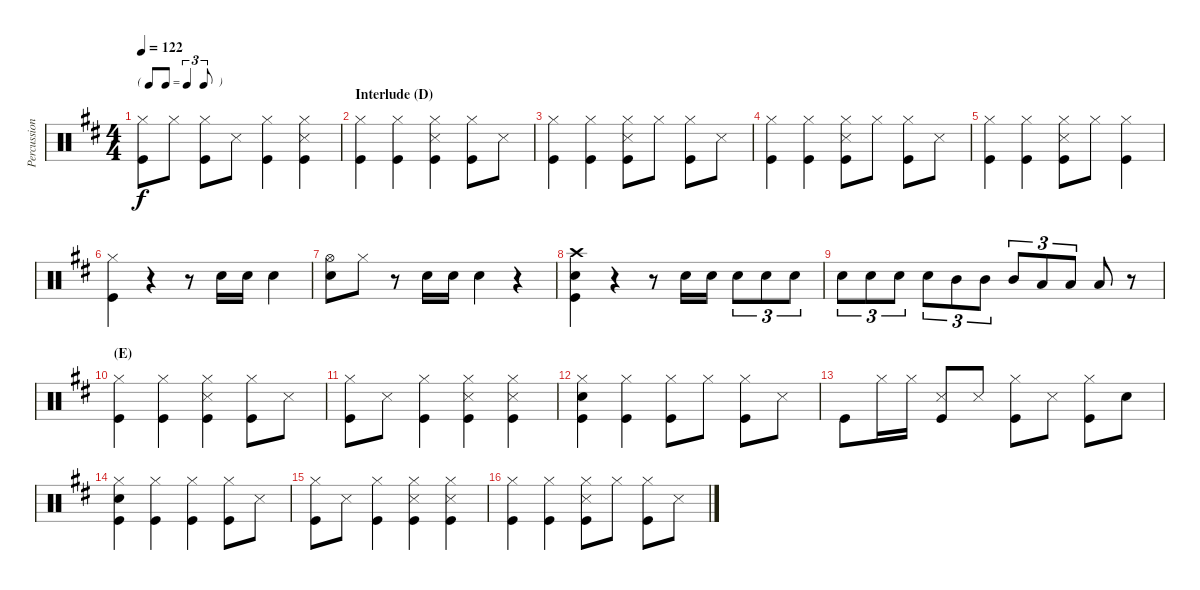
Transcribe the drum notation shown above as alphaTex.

\track ("Percussion" "Percussion") {instrument percussion}
\staff {score}
\articulation defaults
\ts (4 4)
\tf triplet8th
\tempo 122
\clef neutral
\ks d
("Hi-Hat (closed)" "Kick (hit)").8{dy f} "Hi-Hat (closed)".8 ("Hi-Hat (closed)" "Kick (hit)").8 "Snare (side stick) 3".8 ("Hi-Hat (closed)" "Kick (hit)").4 ("Hi-Hat (closed)" "Snare (side stick) 3" "Kick (hit)").4 |
\section ("" "Interlude (D)")
("Hi-Hat (closed)" "Kick (hit)").4 ("Hi-Hat (closed)" "Kick (hit)").4 ("Hi-Hat (closed)" "Snare (side stick) 3" "Kick (hit)").4 ("Hi-Hat (closed)" "Kick (hit)").8 "Snare (side stick) 3".8 |
("Hi-Hat (closed)" "Kick (hit)").4 ("Hi-Hat (closed)" "Kick (hit)").4 ("Hi-Hat (closed)" "Snare (side stick) 3" "Kick (hit)").8 "Hi-Hat (closed)".8 ("Hi-Hat (closed)" "Kick (hit)").8 "Snare (side stick) 3".8 |
("Hi-Hat (closed)" "Kick (hit)").4 ("Hi-Hat (closed)" "Kick (hit)").4 ("Hi-Hat (closed)" "Snare (side stick) 3" "Kick (hit)").8 "Hi-Hat (closed)".8 ("Hi-Hat (closed)" "Kick (hit)").8 "Snare (side stick) 3".8 |
("Hi-Hat (closed)" "Kick (hit)").4 ("Hi-Hat (closed)" "Kick (hit)").4 ("Hi-Hat (closed)" "Snare (side stick) 3" "Kick (hit)").8 "Hi-Hat (closed)".8 ("Hi-Hat (closed)" "Kick (hit)").4 |
("Hi-Hat (closed)" "Kick (hit)").4 r.4 r.8 "Snare (hit) 2".16 "Snare (hit) 2".16 "Snare (hit) 2".4 |
("Hi-Hat (open)" "Snare (hit) 2").8 "Hi-Hat (closed)".8 r.8 "Snare (hit) 2".16 "Snare (hit) 2".16 "Snare (hit) 2".4 r.4 |
("Crash high (hit)" "Snare (hit) 2" "Kick (hit)").4 r.4 r.8 "Snare (hit) 2".16 "Snare (hit) 2".16 "Snare (hit) 2".8{tu (3 2)} "Snare (hit) 2".8{tu (3 2)} "Snare (hit) 2".8{tu (3 2)} |
"Snare (hit) 2".8{tu (3 2)} "Snare (hit) 2".8{tu (3 2)} "Snare (hit) 2".8{tu (3 2)} "Snare (hit) 2".8{tu (3 2)} "Mid Tom (hit)".8{tu (3 2)} "Mid Tom (hit)".8{tu (3 2)} "Mid Tom (hit)".8{tu (3 2)} "Low Tom (hit)".8{tu (3 2)} "Low Tom (hit)".8{tu (3 2)} "Low Tom (hit)".8 r.8 |
\section ("" "(E)")
("Hi-Hat (closed)" "Kick (hit)").4 ("Hi-Hat (closed)" "Kick (hit)").4 ("Hi-Hat (closed)" "Snare (side stick) 3" "Kick (hit)").4 ("Hi-Hat (closed)" "Kick (hit)").8 "Snare (side stick) 3".8 |
("Hi-Hat (closed)" "Kick (hit)").8 "Snare (side stick) 3".8 ("Hi-Hat (closed)" "Kick (hit)").4 ("Hi-Hat (closed)" "Snare (side stick) 3" "Kick (hit)").4 ("Hi-Hat (closed)" "Snare (side stick) 3" "Kick (hit)").4 |
("Hi-Hat (closed)" "Snare (hit) 2" "Kick (hit)").4 ("Hi-Hat (closed)" "Kick (hit)").4 ("Hi-Hat (closed)" "Kick (hit)").8 "Hi-Hat (closed)".8 ("Hi-Hat (closed)" "Kick (hit)").8 "Snare (side stick) 3".8 |
"Kick (hit)".8 "Hi-Hat (closed)".16 "Hi-Hat (closed)".16 ("Snare (side stick) 3" "Kick (hit)").8 "Snare (side stick) 3".8 ("Hi-Hat (closed)" "Kick (hit)").8 "Snare (side stick) 3".8 ("Hi-Hat (closed)" "Kick (hit)").8 "Snare (hit) 2".8 |
("Hi-Hat (closed)" "Snare (hit) 2" "Kick (hit)").4 ("Hi-Hat (closed)" "Kick (hit)").4 ("Hi-Hat (closed)" "Kick (hit)").4 ("Hi-Hat (closed)" "Kick (hit)").8 "Snare (side stick) 3".8 |
("Hi-Hat (closed)" "Kick (hit)").8 "Snare (side stick) 3".8 ("Hi-Hat (closed)" "Kick (hit)").4 ("Hi-Hat (closed)" "Snare (side stick) 3" "Kick (hit)").4 ("Hi-Hat (closed)" "Snare (side stick) 3" "Kick (hit)").4 |
("Hi-Hat (closed)" "Kick (hit)").4 ("Hi-Hat (closed)" "Kick (hit)").4 ("Hi-Hat (closed)" "Snare (side stick) 3" "Kick (hit)").8 "Hi-Hat (closed)".8 ("Hi-Hat (closed)" "Kick (hit)").8 "Snare (side stick) 3".8
